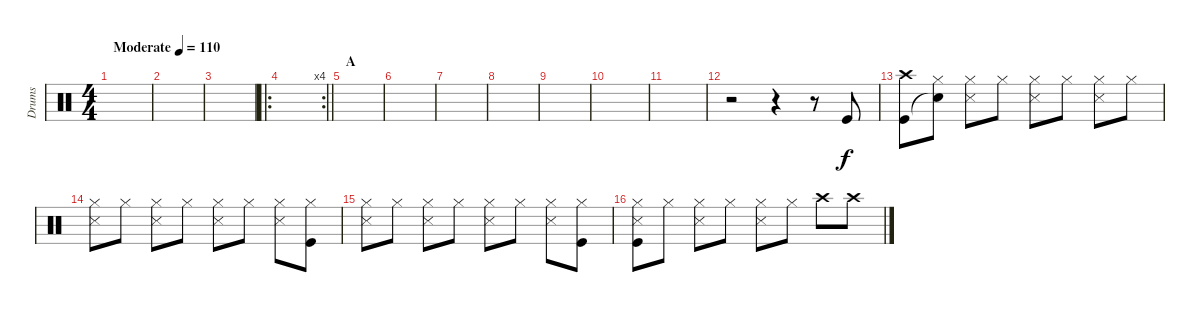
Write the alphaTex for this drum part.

\track ("Drums" "Drums") {instrument percussion}
\staff {score}
\articulation defaults
\ts (4 4)
\tempo (110 "Moderate")
\clef neutral
\ks c
|
|
|
\ro
\rc 4
\barLineRight lightlight
|
\section ("" "A")
|
|
|
|
|
|
|
r.2 r.4 r.8 "Kick (hit)".8 |
("Crash high (hit)" "Kick (hit)").8 ("Hi-Hat (closed)" "Snare (hit)"{t}).8 ("Hi-Hat (closed)" "Snare (side stick) 3").8 "Hi-Hat (closed)".8 ("Hi-Hat (closed)" "Snare (side stick) 3").8 "Hi-Hat (closed)".8 ("Hi-Hat (closed)" "Snare (side stick) 3").8 "Hi-Hat (closed)".8 |
("Hi-Hat (closed)" "Snare (side stick) 3").8 "Hi-Hat (closed)".8 ("Hi-Hat (closed)" "Snare (side stick) 3").8 "Hi-Hat (closed)".8 ("Hi-Hat (closed)" "Snare (side stick) 3").8 "Hi-Hat (closed)".8 ("Hi-Hat (closed)" "Snare (side stick) 3").8 ("Hi-Hat (closed)" "Kick (hit)").8 |
("Hi-Hat (closed)" "Snare (side stick) 3").8 "Hi-Hat (closed)".8 ("Hi-Hat (closed)" "Snare (side stick) 3").8 "Hi-Hat (closed)".8 ("Hi-Hat (closed)" "Snare (side stick) 3").8 "Hi-Hat (closed)".8 ("Hi-Hat (closed)" "Snare (side stick) 3").8 ("Hi-Hat (closed)" "Kick (hit)").8 |
("Hi-Hat (closed)" "Snare (side stick) 3" "Kick (hit)").8 "Hi-Hat (closed)".8 ("Hi-Hat (closed)" "Snare (side stick) 3").8 "Hi-Hat (closed)".8 ("Hi-Hat (closed)" "Snare (side stick) 3").8 "Hi-Hat (closed)".8 "Crash high (hit)".8 "Crash high (hit)".8
